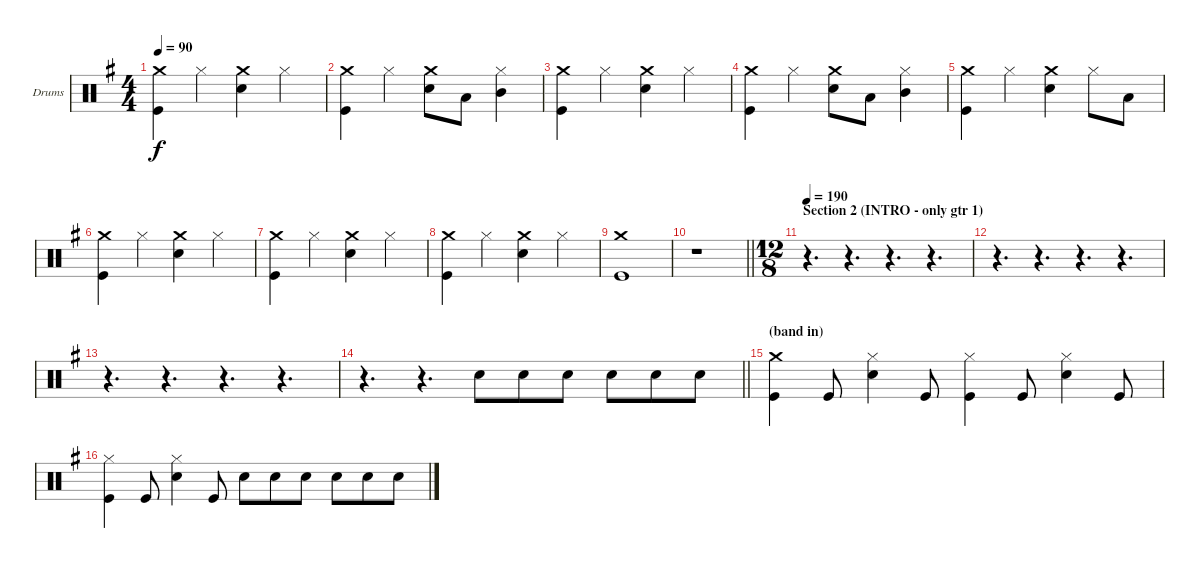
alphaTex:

\bracketExtendMode groupsimilarinstruments
\firstSystemTrackNameOrientation horizontal
\otherSystemsTrackNameOrientation horizontal
\track ("Drumkit" "Drums") {instrument percussion}
\staff {score}
\articulation defaults
\ts (4 4)
\tempo 90
\clef neutral
\ks eminor
("Crash medium (hit)" "Kick (hit)").4{dy f} "Hi-Hat (closed)".4 ("Crash medium (hit)" "Snare (hit) 2").4 "Hi-Hat (closed)".4 |
("Crash medium (hit)" "Kick (hit)").4 "Hi-Hat (closed)".4 ("Crash medium (hit)" "Snare (hit) 2").8 "Low Tom (hit)".8 ("Hi-Hat (closed)" "Mid Tom (hit)").4 |
("Crash medium (hit)" "Kick (hit)").4 "Hi-Hat (closed)".4 ("Crash medium (hit)" "Snare (hit) 2").4 "Hi-Hat (closed)".4 |
("Crash medium (hit)" "Kick (hit)").4 "Hi-Hat (closed)".4 ("Crash medium (hit)" "Snare (hit) 2").8 "Low Tom (hit)".8 ("Hi-Hat (closed)" "Mid Tom (hit)").4 |
("Crash medium (hit)" "Kick (hit)").4 "Hi-Hat (closed)".4 ("Crash medium (hit)" "Snare (hit) 2").4 "Hi-Hat (closed)".8 "Low Tom (hit)".8 |
("Crash medium (hit)" "Kick (hit)").4 "Hi-Hat (closed)".4 ("Crash medium (hit)" "Snare (hit) 2").4 "Hi-Hat (closed)".4 |
("Crash medium (hit)" "Kick (hit)").4 "Hi-Hat (closed)".4 ("Crash medium (hit)" "Snare (hit) 2").4 "Hi-Hat (closed)".4 |
("Crash medium (hit)" "Kick (hit)").4 "Hi-Hat (closed)".4 ("Crash medium (hit)" "Snare (hit) 2").4 "Hi-Hat (closed)".4 |
("Crash medium (hit)" "Kick (hit)").1 |
\barLineRight lightlight
r.1 |
\ts (12 8)
\beaming (8 3 3 3 3)
\section ("" "Section 2 (INTRO - only gtr 1)")
\tempo 190
r.4{d} r.4{d} r.4{d} r.4{d} |
r.4{d} r.4{d} r.4{d} r.4{d} |
r.4{d} r.4{d} r.4{d} r.4{d} |
\barLineRight lightlight
r.4{d} r.4{d} "Snare (hit) 2".8 "Snare (hit) 2".8 "Snare (hit) 2".8 "Snare (hit) 2".8 "Snare (hit) 2".8 "Snare (hit) 2".8 |
\section ("" "(band in)")
("Crash medium (hit)" "Kick (hit)").4 "Kick (hit)".8 ("Hi-Hat (closed)" "Snare (hit) 2").4 "Kick (hit)".8 ("Hi-Hat (closed)" "Kick (hit)").4 "Kick (hit)".8 ("Hi-Hat (closed)" "Snare (hit) 2").4 "Kick (hit)".8 |
("Hi-Hat (closed)" "Kick (hit)").4 "Kick (hit)".8 ("Hi-Hat (closed)" "Snare (hit) 2").4 "Kick (hit)".8 "Snare (hit) 2".8 "Snare (hit) 2".8 "Snare (hit) 2".8 "Snare (hit) 2".8 "Snare (hit) 2".8 "Snare (hit) 2".8
